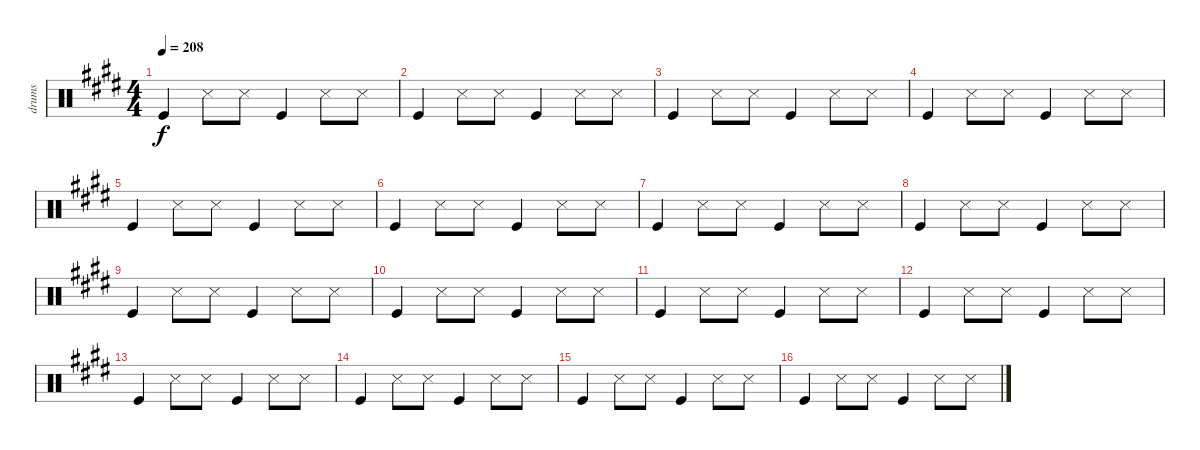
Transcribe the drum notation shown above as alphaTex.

\track ("drums" "drums") {instrument percussion}
\staff {score}
\articulation defaults
\ts (4 4)
\tempo 208
\clef neutral
\ks e "Kick (hit)".4{dy f} "Snare (side stick) 3".8 "Snare (side stick) 3".8 "Kick (hit)".4 "Snare (side stick) 3".8 "Snare (side stick) 3".8
|
"Kick (hit)".4 "Snare (side stick) 3".8 "Snare (side stick) 3".8 "Kick (hit)".4 "Snare (side stick) 3".8 "Snare (side stick) 3".8 |
"Kick (hit)".4 "Snare (side stick) 3".8 "Snare (side stick) 3".8 "Kick (hit)".4 "Snare (side stick) 3".8 "Snare (side stick) 3".8 |
"Kick (hit)".4 "Snare (side stick) 3".8 "Snare (side stick) 3".8 "Kick (hit)".4 "Snare (side stick) 3".8 "Snare (side stick) 3".8 |
"Kick (hit)".4 "Snare (side stick) 3".8 "Snare (side stick) 3".8 "Kick (hit)".4 "Snare (side stick) 3".8 "Snare (side stick) 3".8 |
"Kick (hit)".4 "Snare (side stick) 3".8 "Snare (side stick) 3".8 "Kick (hit)".4 "Snare (side stick) 3".8 "Snare (side stick) 3".8 |
"Kick (hit)".4 "Snare (side stick) 3".8 "Snare (side stick) 3".8 "Kick (hit)".4 "Snare (side stick) 3".8 "Snare (side stick) 3".8 |
"Kick (hit)".4 "Snare (side stick) 3".8 "Snare (side stick) 3".8 "Kick (hit)".4 "Snare (side stick) 3".8 "Snare (side stick) 3".8 |
"Kick (hit)".4 "Snare (side stick) 3".8 "Snare (side stick) 3".8 "Kick (hit)".4 "Snare (side stick) 3".8 "Snare (side stick) 3".8 |
"Kick (hit)".4 "Snare (side stick) 3".8 "Snare (side stick) 3".8 "Kick (hit)".4 "Snare (side stick) 3".8 "Snare (side stick) 3".8 |
"Kick (hit)".4 "Snare (side stick) 3".8 "Snare (side stick) 3".8 "Kick (hit)".4 "Snare (side stick) 3".8 "Snare (side stick) 3".8 |
"Kick (hit)".4 "Snare (side stick) 3".8 "Snare (side stick) 3".8 "Kick (hit)".4 "Snare (side stick) 3".8 "Snare (side stick) 3".8 |
"Kick (hit)".4 "Snare (side stick) 3".8 "Snare (side stick) 3".8 "Kick (hit)".4 "Snare (side stick) 3".8 "Snare (side stick) 3".8 |
"Kick (hit)".4 "Snare (side stick) 3".8 "Snare (side stick) 3".8 "Kick (hit)".4 "Snare (side stick) 3".8 "Snare (side stick) 3".8 |
"Kick (hit)".4 "Snare (side stick) 3".8 "Snare (side stick) 3".8 "Kick (hit)".4 "Snare (side stick) 3".8 "Snare (side stick) 3".8 |
"Kick (hit)".4 "Snare (side stick) 3".8 "Snare (side stick) 3".8 "Kick (hit)".4 "Snare (side stick) 3".8 "Snare (side stick) 3".8
